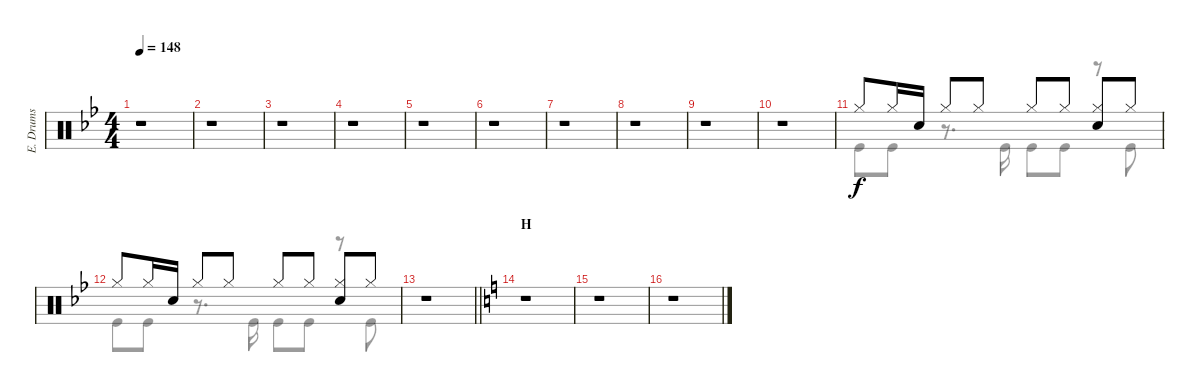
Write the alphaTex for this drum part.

\track ("E. Drums" "E. Drums") {instrument percussion}
\staff {score}
\articulation defaults
\voice
\ts (4 4)
\tempo 148
\clef neutral
\ks bb
r.1{dy f} |
r.1 |
r.1 |
r.1 |
r.1 |
r.1 |
r.1 |
r.1 |
r.1 |
r.1 |
"Hi-Hat (closed)".8 "Hi-Hat (closed)".16 "Electric Snare (hit)".16 "Hi-Hat (closed)".8 "Hi-Hat (closed)".8 "Hi-Hat (closed)".8 "Hi-Hat (closed)".8 ("Hi-Hat (closed)" "Electric Snare (hit)").8 "Hi-Hat (closed)".8 |
"Hi-Hat (closed)".8 "Hi-Hat (closed)".16 "Electric Snare (hit)".16 "Hi-Hat (closed)".8 "Hi-Hat (closed)".8 "Hi-Hat (closed)".8 "Hi-Hat (closed)".8 ("Hi-Hat (closed)" "Electric Snare (hit)").8 "Hi-Hat (closed)".8 |
\barLineRight lightlight
r.1 |
\section ("" "H")
\ks c
r.1 |
r.1 |
r.1
\voice
\clef neutral
\ottava regular
\simile none
\ks bb
|
|
|
|
|
|
|
|
|
|
"Kick (hit)".8 "Kick (hit)".8 r.8{d} "Kick (hit)".16 "Kick (hit)".8 "Kick (hit)".8 r.8 "Kick (hit)".8 |
"Kick (hit)".8 "Kick (hit)".8 r.8{d} "Kick (hit)".16 "Kick (hit)".8 "Kick (hit)".8 r.8 "Kick (hit)".8 |
\barLineRight lightlight
|
\ks c
|
|
